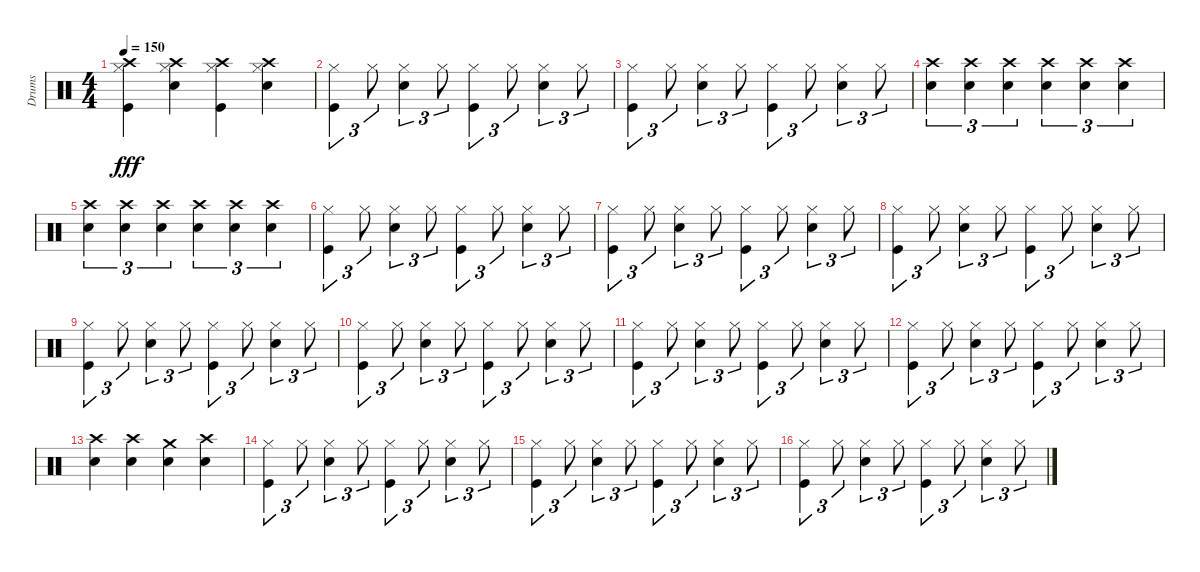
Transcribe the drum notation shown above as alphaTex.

\track ("Drums" "Drums") {instrument percussion}
\staff {score}
\articulation defaults
\ts (4 4)
\tempo 150
\clef neutral
\ks c
("Hi-Hat (closed)" "Crash high (hit)" "Kick (hit)").4{dy fff} ("Hi-Hat (closed)" "Crash high (hit)" "Snare (hit) 2").4 ("Hi-Hat (closed)" "Crash high (hit)" "Kick (hit)").4 ("Hi-Hat (closed)" "Crash high (hit)" "Snare (hit) 2").4 |
("Hi-Hat (closed)" "Kick (hit)").4{tu (3 2)} "Hi-Hat (closed)".8{tu (3 2)} ("Hi-Hat (closed)" "Snare (hit) 2").4{tu (3 2)} "Hi-Hat (closed)".8{tu (3 2)} ("Hi-Hat (closed)" "Kick (hit)").4{tu (3 2)} "Hi-Hat (closed)".8{tu (3 2)} ("Hi-Hat (closed)" "Snare (hit) 2").4{tu (3 2)} "Hi-Hat (closed)".8{tu (3 2)} |
("Hi-Hat (closed)" "Kick (hit)").4{tu (3 2)} "Hi-Hat (closed)".8{tu (3 2)} ("Hi-Hat (closed)" "Snare (hit) 2").4{tu (3 2)} "Hi-Hat (closed)".8{tu (3 2)} ("Hi-Hat (closed)" "Kick (hit)").4{tu (3 2)} "Hi-Hat (closed)".8{tu (3 2)} ("Hi-Hat (closed)" "Snare (hit) 2").4{tu (3 2)} "Hi-Hat (closed)".8{tu (3 2)} |
("Crash high (hit)" "Snare (hit) 2").4{tu (3 2)} ("Crash high (hit)" "Snare (hit) 2").4{tu (3 2)} ("Crash high (hit)" "Snare (hit) 2").4{tu (3 2)} ("Crash high (hit)" "Snare (hit) 2").4{tu (3 2)} ("Crash high (hit)" "Snare (hit) 2").4{tu (3 2)} ("Crash high (hit)" "Snare (hit) 2").4{tu (3 2)} |
("Crash high (hit)" "Snare (hit) 2").4{tu (3 2)} ("Crash high (hit)" "Snare (hit) 2").4{tu (3 2)} ("Crash high (hit)" "Snare (hit) 2").4{tu (3 2)} ("Crash high (hit)" "Snare (hit) 2").4{tu (3 2)} ("Crash high (hit)" "Snare (hit) 2").4{tu (3 2)} ("Crash high (hit)" "Snare (hit) 2").4{tu (3 2)} |
("Hi-Hat (closed)" "Kick (hit)").4{tu (3 2)} "Hi-Hat (closed)".8{tu (3 2)} ("Hi-Hat (closed)" "Snare (hit) 2").4{tu (3 2)} "Hi-Hat (closed)".8{tu (3 2)} ("Hi-Hat (closed)" "Kick (hit)").4{tu (3 2)} "Hi-Hat (closed)".8{tu (3 2)} ("Hi-Hat (closed)" "Snare (hit) 2").4{tu (3 2)} "Hi-Hat (closed)".8{tu (3 2)} |
("Hi-Hat (closed)" "Kick (hit)").4{tu (3 2)} "Hi-Hat (closed)".8{tu (3 2)} ("Hi-Hat (closed)" "Snare (hit) 2").4{tu (3 2)} "Hi-Hat (closed)".8{tu (3 2)} ("Hi-Hat (closed)" "Kick (hit)").4{tu (3 2)} "Hi-Hat (closed)".8{tu (3 2)} ("Hi-Hat (closed)" "Snare (hit) 2").4{tu (3 2)} "Hi-Hat (closed)".8{tu (3 2)} |
("Hi-Hat (closed)" "Kick (hit)").4{tu (3 2)} "Hi-Hat (closed)".8{tu (3 2)} ("Hi-Hat (closed)" "Snare (hit) 2").4{tu (3 2)} "Hi-Hat (closed)".8{tu (3 2)} ("Hi-Hat (closed)" "Kick (hit)").4{tu (3 2)} "Hi-Hat (closed)".8{tu (3 2)} ("Hi-Hat (closed)" "Snare (hit) 2").4{tu (3 2)} "Hi-Hat (closed)".8{tu (3 2)} |
("Hi-Hat (closed)" "Kick (hit)").4{tu (3 2)} "Hi-Hat (closed)".8{tu (3 2)} ("Hi-Hat (closed)" "Snare (hit) 2").4{tu (3 2)} "Hi-Hat (closed)".8{tu (3 2)} ("Hi-Hat (closed)" "Kick (hit)").4{tu (3 2)} "Hi-Hat (closed)".8{tu (3 2)} ("Hi-Hat (closed)" "Snare (hit) 2").4{tu (3 2)} "Hi-Hat (closed)".8{tu (3 2)} |
("Hi-Hat (closed)" "Kick (hit)").4{tu (3 2)} "Hi-Hat (closed)".8{tu (3 2)} ("Hi-Hat (closed)" "Snare (hit) 2").4{tu (3 2)} "Hi-Hat (closed)".8{tu (3 2)} ("Hi-Hat (closed)" "Kick (hit)").4{tu (3 2)} "Hi-Hat (closed)".8{tu (3 2)} ("Hi-Hat (closed)" "Snare (hit) 2").4{tu (3 2)} "Hi-Hat (closed)".8{tu (3 2)} |
("Hi-Hat (closed)" "Kick (hit)").4{tu (3 2)} "Hi-Hat (closed)".8{tu (3 2)} ("Hi-Hat (closed)" "Snare (hit) 2").4{tu (3 2)} "Hi-Hat (closed)".8{tu (3 2)} ("Hi-Hat (closed)" "Kick (hit)").4{tu (3 2)} "Hi-Hat (closed)".8{tu (3 2)} ("Hi-Hat (closed)" "Snare (hit) 2").4{tu (3 2)} "Hi-Hat (closed)".8{tu (3 2)} |
("Hi-Hat (closed)" "Kick (hit)").4{tu (3 2)} "Hi-Hat (closed)".8{tu (3 2)} ("Hi-Hat (closed)" "Snare (hit) 2").4{tu (3 2)} "Hi-Hat (closed)".8{tu (3 2)} ("Hi-Hat (closed)" "Kick (hit)").4{tu (3 2)} "Hi-Hat (closed)".8{tu (3 2)} ("Hi-Hat (closed)" "Snare (hit) 2").4{tu (3 2)} "Hi-Hat (closed)".8{tu (3 2)} |
("Crash high (hit)" "Snare (hit) 2").4 ("Crash high (hit)" "Snare (hit) 2").4 ("Crash medium (hit)" "Snare (hit) 2").4 ("Crash high (hit)" "Snare (hit) 2").4 |
("Hi-Hat (closed)" "Kick (hit)").4{tu (3 2)} "Hi-Hat (closed)".8{tu (3 2)} ("Hi-Hat (closed)" "Snare (hit) 2").4{tu (3 2)} "Hi-Hat (closed)".8{tu (3 2)} ("Hi-Hat (closed)" "Kick (hit)").4{tu (3 2)} "Hi-Hat (closed)".8{tu (3 2)} ("Hi-Hat (closed)" "Snare (hit) 2").4{tu (3 2)} "Hi-Hat (closed)".8{tu (3 2)} |
("Hi-Hat (closed)" "Kick (hit)").4{tu (3 2)} "Hi-Hat (closed)".8{tu (3 2)} ("Hi-Hat (closed)" "Snare (hit) 2").4{tu (3 2)} "Hi-Hat (closed)".8{tu (3 2)} ("Hi-Hat (closed)" "Kick (hit)").4{tu (3 2)} "Hi-Hat (closed)".8{tu (3 2)} ("Hi-Hat (closed)" "Snare (hit) 2").4{tu (3 2)} "Hi-Hat (closed)".8{tu (3 2)} |
("Hi-Hat (closed)" "Kick (hit)").4{tu (3 2)} "Hi-Hat (closed)".8{tu (3 2)} ("Hi-Hat (closed)" "Snare (hit) 2").4{tu (3 2)} "Hi-Hat (closed)".8{tu (3 2)} ("Hi-Hat (closed)" "Kick (hit)").4{tu (3 2)} "Hi-Hat (closed)".8{tu (3 2)} ("Hi-Hat (closed)" "Snare (hit) 2").4{tu (3 2)} "Hi-Hat (closed)".8{tu (3 2)}
